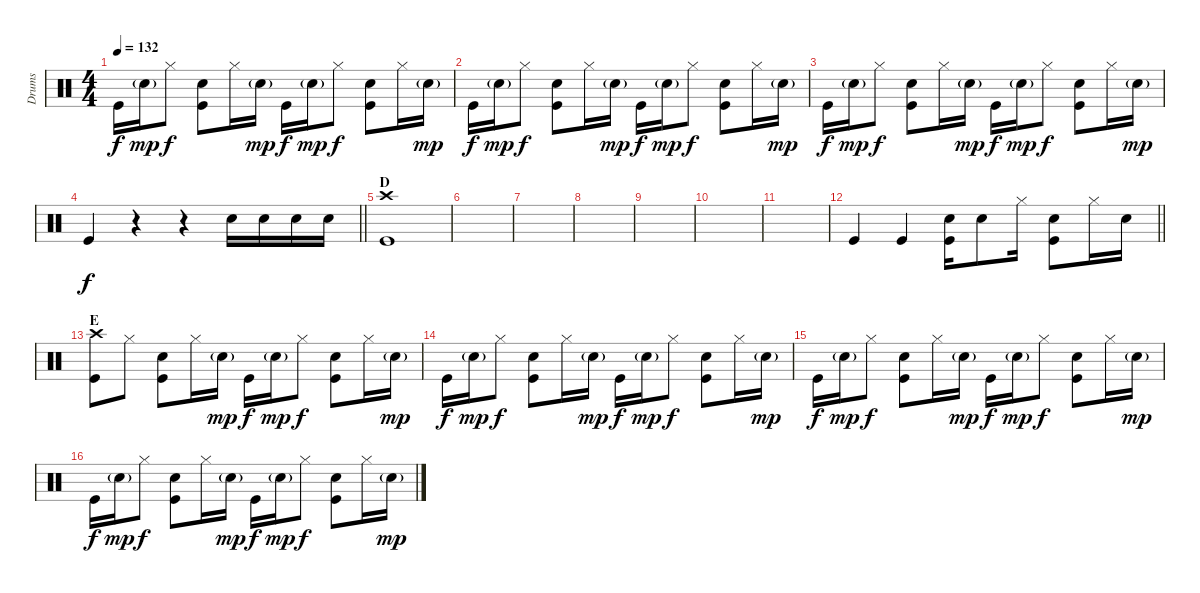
\track ("Drums" "Drums") {instrument percussion}
\staff {score}
\articulation defaults
\ts (4 4)
\tempo 132
\clef neutral
\ks c "Kick (hit)".16{dy f} "Electric Snare (hit)"{g}.16{dy mp} "Hi-Hat (closed)".8{dy f}
("Electric Snare (hit)" "Kick (hit)").8 "Hi-Hat (closed)".16 "Electric Snare (hit)"{g}.16{dy mp} "Kick (hit)".16{dy f} "Electric Snare (hit)"{g}.16{dy mp} "Hi-Hat (closed)".8{dy f} ("Electric Snare (hit)" "Kick (hit)").8 "Hi-Hat (closed)".16 "Electric Snare (hit)"{g}.16{dy mp} |
"Kick (hit)".16{dy f} "Electric Snare (hit)"{g}.16{dy mp} "Hi-Hat (closed)".8{dy f} ("Electric Snare (hit)" "Kick (hit)").8 "Hi-Hat (closed)".16 "Electric Snare (hit)"{g}.16{dy mp} "Kick (hit)".16{dy f} "Electric Snare (hit)"{g}.16{dy mp} "Hi-Hat (closed)".8{dy f} ("Electric Snare (hit)" "Kick (hit)").8 "Hi-Hat (closed)".16 "Electric Snare (hit)"{g}.16{dy mp} |
"Kick (hit)".16{dy f} "Electric Snare (hit)"{g}.16{dy mp} "Hi-Hat (closed)".8{dy f} ("Electric Snare (hit)" "Kick (hit)").8 "Hi-Hat (closed)".16 "Electric Snare (hit)"{g}.16{dy mp} "Kick (hit)".16{dy f} "Electric Snare (hit)"{g}.16{dy mp} "Hi-Hat (closed)".8{dy f} ("Electric Snare (hit)" "Kick (hit)").8 "Hi-Hat (closed)".16 "Electric Snare (hit)"{g}.16{dy mp} |
\barLineRight lightlight "Kick (hit)".4{dy f}
r.4 r.4 "Electric Snare (hit)".16 "Electric Snare (hit)".16 "Electric Snare (hit)".16 "Electric Snare (hit)".16 |
\section ("" "D")
("Crash high (hit)" "Kick (hit)").1 |
|
|
|
|
|
|
\barLineRight lightlight "Kick (hit)".4 "Kick (hit)".4
("Electric Snare (hit)" "Kick (hit)").16 "Electric Snare (hit)".8 "Hi-Hat (closed)".16 ("Electric Snare (hit)" "Kick (hit)").8 "Hi-Hat (closed)".16 "Electric Snare (hit)".16 |
\section ("" "E")
("Crash high (hit)" "Kick (hit)").8 "Hi-Hat (closed)".8 ("Electric Snare (hit)" "Kick (hit)").8 "Hi-Hat (closed)".16 "Electric Snare (hit)"{g}.16{dy mp} "Kick (hit)".16{dy f} "Electric Snare (hit)"{g}.16{dy mp} "Hi-Hat (closed)".8{dy f} ("Electric Snare (hit)" "Kick (hit)").8 "Hi-Hat (closed)".16 "Electric Snare (hit)"{g}.16{dy mp} |
"Kick (hit)".16{dy f} "Electric Snare (hit)"{g}.16{dy mp} "Hi-Hat (closed)".8{dy f} ("Electric Snare (hit)" "Kick (hit)").8 "Hi-Hat (closed)".16 "Electric Snare (hit)"{g}.16{dy mp} "Kick (hit)".16{dy f} "Electric Snare (hit)"{g}.16{dy mp} "Hi-Hat (closed)".8{dy f} ("Electric Snare (hit)" "Kick (hit)").8 "Hi-Hat (closed)".16 "Electric Snare (hit)"{g}.16{dy mp} |
"Kick (hit)".16{dy f} "Electric Snare (hit)"{g}.16{dy mp} "Hi-Hat (closed)".8{dy f} ("Electric Snare (hit)" "Kick (hit)").8 "Hi-Hat (closed)".16 "Electric Snare (hit)"{g}.16{dy mp} "Kick (hit)".16{dy f} "Electric Snare (hit)"{g}.16{dy mp} "Hi-Hat (closed)".8{dy f} ("Electric Snare (hit)" "Kick (hit)").8 "Hi-Hat (closed)".16 "Electric Snare (hit)"{g}.16{dy mp} |
"Kick (hit)".16{dy f} "Electric Snare (hit)"{g}.16{dy mp} "Hi-Hat (closed)".8{dy f} ("Electric Snare (hit)" "Kick (hit)").8 "Hi-Hat (closed)".16 "Electric Snare (hit)"{g}.16{dy mp} "Kick (hit)".16{dy f} "Electric Snare (hit)"{g}.16{dy mp} "Hi-Hat (closed)".8{dy f} ("Electric Snare (hit)" "Kick (hit)").8 "Hi-Hat (closed)".16 "Electric Snare (hit)"{g}.16{dy mp}
